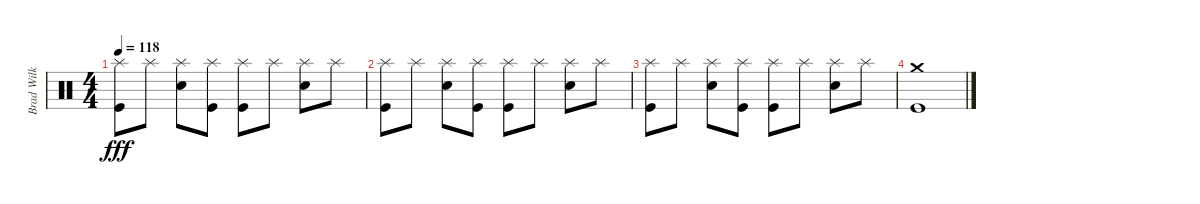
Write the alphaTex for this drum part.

\track ("Brad Wilk - Drums" "Brad Wilk ") {instrument percussion}
\staff {score}
\articulation defaults
\ts (4 4)
\tempo 118
\clef neutral
\ks c
("Splash (hit)" "Kick (hit)").8{dy fff} "Splash (hit)".8 ("Splash (hit)" "Snare (hit) 2").8 ("Splash (hit)" "Kick (hit)").8 ("Splash (hit)" "Kick (hit)").8 "Splash (hit)".8 ("Splash (hit)" "Snare (hit) 2").8 "Splash (hit)".8 |
("Splash (hit)" "Kick (hit)").8 "Splash (hit)".8 ("Splash (hit)" "Snare (hit) 2").8 ("Splash (hit)" "Kick (hit)").8 ("Splash (hit)" "Kick (hit)").8 "Splash (hit)".8 ("Splash (hit)" "Snare (hit) 2").8 "Splash (hit)".8 |
("Splash (hit)" "Kick (hit)").8 "Splash (hit)".8 ("Splash (hit)" "Snare (hit) 2").8 ("Splash (hit)" "Kick (hit)").8 ("Splash (hit)" "Kick (hit)").8 "Splash (hit)".8 ("Splash (hit)" "Snare (hit) 2").8 "Splash (hit)".8 |
("Crash medium (hit)" "Kick (hit)").1
